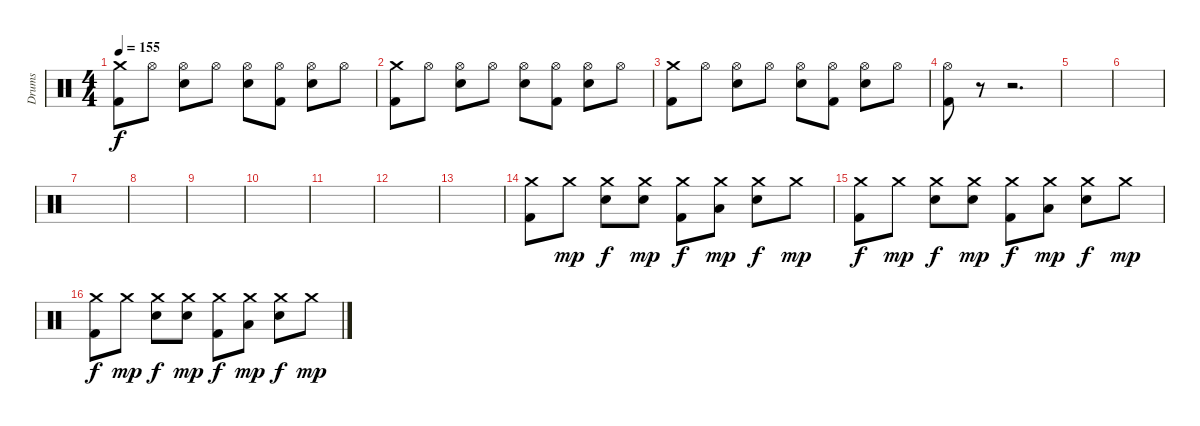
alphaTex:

\track ("Drums" "Drums") {instrument percussion}
\staff {score}
\articulation defaults
\ts (4 4)
\tempo 155
\clef neutral
\ks c
("Crash medium (hit)" "Kick (hit) 2").8{dy f} "Hi-Hat (open)".8 ("Hi-Hat (open)" "Snare (hit) 2").8 "Hi-Hat (open)".8 ("Hi-Hat (open)" "Snare (hit) 2").8 ("Hi-Hat (open)" "Kick (hit) 2").8 ("Hi-Hat (open)" "Snare (hit) 2").8 "Hi-Hat (open)".8 |
("Crash medium (hit)" "Kick (hit) 2").8 "Hi-Hat (open)".8 ("Hi-Hat (open)" "Snare (hit) 2").8 "Hi-Hat (open)".8 ("Hi-Hat (open)" "Snare (hit) 2").8 ("Hi-Hat (open)" "Kick (hit) 2").8 ("Hi-Hat (open)" "Snare (hit) 2").8 "Hi-Hat (open)".8 |
("Crash medium (hit)" "Kick (hit) 2").8 "Hi-Hat (open)".8 ("Hi-Hat (open)" "Snare (hit) 2").8 "Hi-Hat (open)".8 ("Hi-Hat (open)" "Snare (hit) 2").8 ("Hi-Hat (open)" "Kick (hit) 2").8 ("Hi-Hat (open)" "Snare (hit) 2").8 "Hi-Hat (open)".8 |
("Hi-Hat (open)" "Kick (hit) 2").8 r.8 r.2{d} |
|
|
|
|
|
|
|
|
|
("Crash medium (hit)" "Kick (hit) 2").8 "Crash medium (hit)".8{dy mp} ("Crash medium (hit)" "Snare (hit) 2").8{dy f} ("Crash medium (hit)" "Snare (hit) 2").8{dy mp} ("Crash medium (hit)" "Kick (hit) 2").8{dy f} ("Crash medium (hit)" "Low Tom (hit)").8{dy mp} ("Crash medium (hit)" "Snare (hit) 2").8{dy f} "Crash medium (hit)".8{dy mp} |
("Crash medium (hit)" "Kick (hit) 2").8{dy f} "Crash medium (hit)".8{dy mp} ("Crash medium (hit)" "Snare (hit) 2").8{dy f} ("Crash medium (hit)" "Snare (hit) 2").8{dy mp} ("Crash medium (hit)" "Kick (hit) 2").8{dy f} ("Crash medium (hit)" "Low Tom (hit)").8{dy mp} ("Crash medium (hit)" "Snare (hit) 2").8{dy f} "Crash medium (hit)".8{dy mp} |
("Crash medium (hit)" "Kick (hit) 2").8{dy f} "Crash medium (hit)".8{dy mp} ("Crash medium (hit)" "Snare (hit) 2").8{dy f} ("Crash medium (hit)" "Snare (hit) 2").8{dy mp} ("Crash medium (hit)" "Kick (hit) 2").8{dy f} ("Crash medium (hit)" "Low Tom (hit)").8{dy mp} ("Crash medium (hit)" "Snare (hit) 2").8{dy f} "Crash medium (hit)".8{dy mp}
